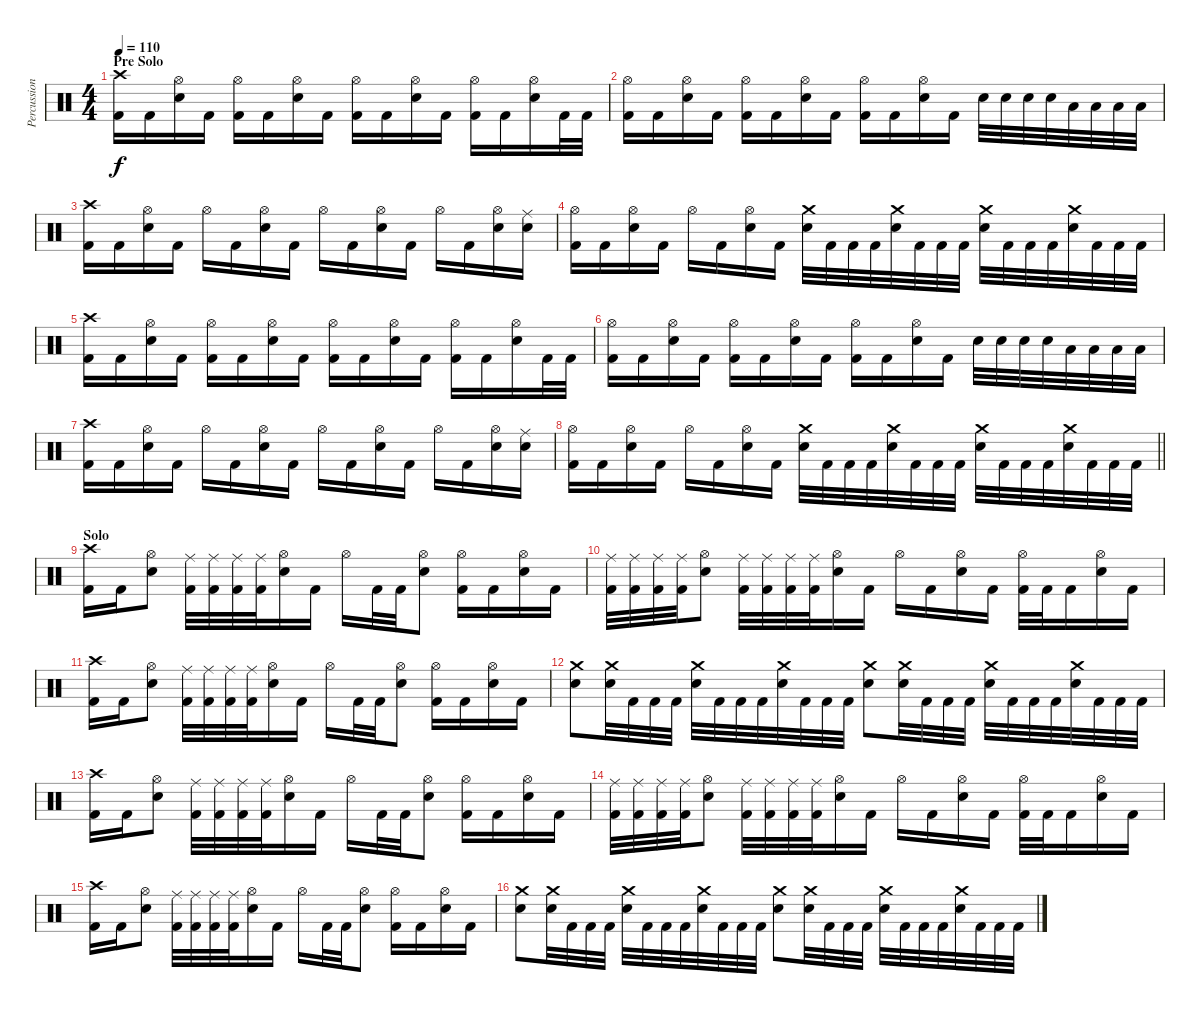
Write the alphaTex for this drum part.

\track ("Percussion" "Percussion") {instrument percussion}
\staff {score}
\articulation defaults
\ts (4 4)
\section ("" "Pre Solo")
\tempo 110
\clef neutral
\ks c
("Kick (hit) 2" "Crash high (hit)").16{dy f} "Kick (hit) 2".16 ("Hi-Hat (open)" "Snare (hit) 2").16 "Kick (hit) 2".16 ("Hi-Hat (open)" "Kick (hit) 2").16 "Kick (hit) 2".16 ("Hi-Hat (open)" "Snare (hit) 2").16 "Kick (hit) 2".16 ("Hi-Hat (open)" "Kick (hit) 2").16 "Kick (hit) 2".16 ("Hi-Hat (open)" "Snare (hit) 2").16 "Kick (hit) 2".16 ("Hi-Hat (open)" "Kick (hit) 2").16 "Kick (hit) 2".16 ("Hi-Hat (open)" "Snare (hit) 2").16 "Kick (hit) 2".32 "Kick (hit) 2".32 |
("Hi-Hat (open)" "Kick (hit) 2").16 "Kick (hit) 2".16 ("Hi-Hat (open)" "Snare (hit) 2").16 "Kick (hit) 2".16 ("Hi-Hat (open)" "Kick (hit) 2").16 "Kick (hit) 2".16 ("Hi-Hat (open)" "Snare (hit) 2").16 "Kick (hit) 2".16 ("Hi-Hat (open)" "Kick (hit) 2").16 "Kick (hit) 2".16 ("Hi-Hat (open)" "Snare (hit) 2").16 "Kick (hit) 2".16 "Snare (hit) 2".32 "Snare (hit) 2".32 "Snare (hit) 2".32 "Snare (hit) 2".32 "Low Tom (hit)".32 "Low Tom (hit)".32 "Low Tom (hit)".32 "Low Tom (hit)".32 |
("Kick (hit) 2" "Crash high (hit)").16 "Kick (hit) 2".16 ("Hi-Hat (open)" "Snare (hit) 2").16 "Kick (hit) 2".16 "Hi-Hat (open)".16 "Kick (hit) 2".16 ("Hi-Hat (open)" "Snare (hit) 2").16 "Kick (hit) 2".16 "Hi-Hat (open)".16 "Kick (hit) 2".16 ("Hi-Hat (open)" "Snare (hit) 2").16 "Kick (hit) 2".16 "Hi-Hat (open)".16 "Kick (hit) 2".16 ("Hi-Hat (open)" "Snare (hit) 2").16 ("Ride (middle)" "Snare (hit) 2").16 |
("Hi-Hat (open)" "Kick (hit) 2").16 "Kick (hit) 2".16 ("Hi-Hat (open)" "Snare (hit) 2").16 "Kick (hit) 2".16 "Hi-Hat (open)".16 "Kick (hit) 2".16 ("Hi-Hat (open)" "Snare (hit) 2").16 "Kick (hit) 2".16 ("Snare (hit) 2" "Crash medium (hit)").32 "Kick (hit) 2".32 "Kick (hit) 2".32 "Kick (hit) 2".32 ("Snare (hit) 2" "Crash medium (hit)").32 "Kick (hit) 2".32 "Kick (hit) 2".32 "Kick (hit) 2".32 ("Snare (hit) 2" "Crash medium (hit)").32 "Kick (hit) 2".32 "Kick (hit) 2".32 "Kick (hit) 2".32 ("Snare (hit) 2" "Crash medium (hit)").32 "Kick (hit) 2".32 "Kick (hit) 2".32 "Kick (hit) 2".32 |
("Kick (hit) 2" "Crash high (hit)").16 "Kick (hit) 2".16 ("Hi-Hat (open)" "Snare (hit) 2").16 "Kick (hit) 2".16 ("Hi-Hat (open)" "Kick (hit) 2").16 "Kick (hit) 2".16 ("Hi-Hat (open)" "Snare (hit) 2").16 "Kick (hit) 2".16 ("Hi-Hat (open)" "Kick (hit) 2").16 "Kick (hit) 2".16 ("Hi-Hat (open)" "Snare (hit) 2").16 "Kick (hit) 2".16 ("Hi-Hat (open)" "Kick (hit) 2").16 "Kick (hit) 2".16 ("Hi-Hat (open)" "Snare (hit) 2").16 "Kick (hit) 2".32 "Kick (hit) 2".32 |
("Hi-Hat (open)" "Kick (hit) 2").16 "Kick (hit) 2".16 ("Hi-Hat (open)" "Snare (hit) 2").16 "Kick (hit) 2".16 ("Hi-Hat (open)" "Kick (hit) 2").16 "Kick (hit) 2".16 ("Hi-Hat (open)" "Snare (hit) 2").16 "Kick (hit) 2".16 ("Hi-Hat (open)" "Kick (hit) 2").16 "Kick (hit) 2".16 ("Hi-Hat (open)" "Snare (hit) 2").16 "Kick (hit) 2".16 "Snare (hit) 2".32 "Snare (hit) 2".32 "Snare (hit) 2".32 "Snare (hit) 2".32 "Low Tom (hit)".32 "Low Tom (hit)".32 "Low Tom (hit)".32 "Low Tom (hit)".32 |
("Kick (hit) 2" "Crash high (hit)").16 "Kick (hit) 2".16 ("Hi-Hat (open)" "Snare (hit) 2").16 "Kick (hit) 2".16 "Hi-Hat (open)".16 "Kick (hit) 2".16 ("Hi-Hat (open)" "Snare (hit) 2").16 "Kick (hit) 2".16 "Hi-Hat (open)".16 "Kick (hit) 2".16 ("Hi-Hat (open)" "Snare (hit) 2").16 "Kick (hit) 2".16 "Hi-Hat (open)".16 "Kick (hit) 2".16 ("Hi-Hat (open)" "Snare (hit) 2").16 ("Ride (middle)" "Snare (hit) 2").16 |
\barLineRight lightlight
("Hi-Hat (open)" "Kick (hit) 2").16 "Kick (hit) 2".16 ("Hi-Hat (open)" "Snare (hit) 2").16 "Kick (hit) 2".16 "Hi-Hat (open)".16 "Kick (hit) 2".16 ("Hi-Hat (open)" "Snare (hit) 2").16 "Kick (hit) 2".16 ("Snare (hit) 2" "Crash medium (hit)").32 "Kick (hit) 2".32 "Kick (hit) 2".32 "Kick (hit) 2".32 ("Snare (hit) 2" "Crash medium (hit)").32 "Kick (hit) 2".32 "Kick (hit) 2".32 "Kick (hit) 2".32 ("Snare (hit) 2" "Crash medium (hit)").32 "Kick (hit) 2".32 "Kick (hit) 2".32 "Kick (hit) 2".32 ("Snare (hit) 2" "Crash medium (hit)").32 "Kick (hit) 2".32 "Kick (hit) 2".32 "Kick (hit) 2".32 |
\section ("" "Solo")
("Kick (hit) 2" "Crash high (hit)").16 "Kick (hit) 2".16 ("Hi-Hat (open)" "Snare (hit) 2").8 ("Ride (middle)" "Kick (hit) 2").32 ("Ride (middle)" "Kick (hit) 2").32 ("Ride (middle)" "Kick (hit) 2").32 ("Ride (middle)" "Kick (hit) 2").32 ("Hi-Hat (open)" "Snare (hit) 2").16 "Kick (hit) 2".16 "Hi-Hat (open)".16 "Kick (hit) 2".32 "Kick (hit) 2".32 ("Hi-Hat (open)" "Snare (hit) 2").8 ("Hi-Hat (open)" "Kick (hit) 2").16 "Kick (hit) 2".16 ("Hi-Hat (open)" "Snare (hit) 2").16 "Kick (hit) 2".16 |
("Ride (middle)" "Kick (hit) 2").32 ("Ride (middle)" "Kick (hit) 2").32 ("Ride (middle)" "Kick (hit) 2").32 ("Ride (middle)" "Kick (hit) 2").32 ("Hi-Hat (open)" "Snare (hit) 2").8 ("Ride (middle)" "Kick (hit) 2").32 ("Ride (middle)" "Kick (hit) 2").32 ("Ride (middle)" "Kick (hit) 2").32 ("Ride (middle)" "Kick (hit) 2").32 ("Hi-Hat (open)" "Snare (hit) 2").16 "Kick (hit) 2".16 "Hi-Hat (open)".16 "Kick (hit) 2".16 ("Hi-Hat (open)" "Snare (hit) 2").16 "Kick (hit) 2".16 ("Hi-Hat (open)" "Kick (hit) 2").32 "Kick (hit) 2".32 "Kick (hit) 2".16 ("Hi-Hat (open)" "Snare (hit) 2").16 "Kick (hit) 2".16 |
("Kick (hit) 2" "Crash high (hit)").16 "Kick (hit) 2".16 ("Hi-Hat (open)" "Snare (hit) 2").8 ("Ride (middle)" "Kick (hit) 2").32 ("Ride (middle)" "Kick (hit) 2").32 ("Ride (middle)" "Kick (hit) 2").32 ("Ride (middle)" "Kick (hit) 2").32 ("Hi-Hat (open)" "Snare (hit) 2").16 "Kick (hit) 2".16 "Hi-Hat (open)".16 "Kick (hit) 2".32 "Kick (hit) 2".32 ("Hi-Hat (open)" "Snare (hit) 2").8 ("Hi-Hat (open)" "Kick (hit) 2").16 "Kick (hit) 2".16 ("Hi-Hat (open)" "Snare (hit) 2").16 "Kick (hit) 2".16 |
("Snare (hit) 2" "Crash medium (hit)").8 ("Snare (hit) 2" "Crash medium (hit)").32 "Kick (hit) 2".32 "Kick (hit) 2".32 "Kick (hit) 2".32 ("Snare (hit) 2" "Crash medium (hit)").32 "Kick (hit) 2".32 "Kick (hit) 2".32 "Kick (hit) 2".32 ("Snare (hit) 2" "Crash medium (hit)").32 "Kick (hit) 2".32 "Kick (hit) 2".32 "Kick (hit) 2".32 ("Snare (hit) 2" "Crash medium (hit)").8 ("Snare (hit) 2" "Crash medium (hit)").32 "Kick (hit) 2".32 "Kick (hit) 2".32 "Kick (hit) 2".32 ("Snare (hit) 2" "Crash medium (hit)").32 "Kick (hit) 2".32 "Kick (hit) 2".32 "Kick (hit) 2".32 ("Snare (hit) 2" "Crash medium (hit)").32 "Kick (hit) 2".32 "Kick (hit) 2".32 "Kick (hit) 2".32 |
("Kick (hit) 2" "Crash high (hit)").16 "Kick (hit) 2".16 ("Hi-Hat (open)" "Snare (hit) 2").8 ("Ride (middle)" "Kick (hit) 2").32 ("Ride (middle)" "Kick (hit) 2").32 ("Ride (middle)" "Kick (hit) 2").32 ("Ride (middle)" "Kick (hit) 2").32 ("Hi-Hat (open)" "Snare (hit) 2").16 "Kick (hit) 2".16 "Hi-Hat (open)".16 "Kick (hit) 2".32 "Kick (hit) 2".32 ("Hi-Hat (open)" "Snare (hit) 2").8 ("Hi-Hat (open)" "Kick (hit) 2").16 "Kick (hit) 2".16 ("Hi-Hat (open)" "Snare (hit) 2").16 "Kick (hit) 2".16 |
("Ride (middle)" "Kick (hit) 2").32 ("Ride (middle)" "Kick (hit) 2").32 ("Ride (middle)" "Kick (hit) 2").32 ("Ride (middle)" "Kick (hit) 2").32 ("Hi-Hat (open)" "Snare (hit) 2").8 ("Ride (middle)" "Kick (hit) 2").32 ("Ride (middle)" "Kick (hit) 2").32 ("Ride (middle)" "Kick (hit) 2").32 ("Ride (middle)" "Kick (hit) 2").32 ("Hi-Hat (open)" "Snare (hit) 2").16 "Kick (hit) 2".16 "Hi-Hat (open)".16 "Kick (hit) 2".16 ("Hi-Hat (open)" "Snare (hit) 2").16 "Kick (hit) 2".16 ("Hi-Hat (open)" "Kick (hit) 2").32 "Kick (hit) 2".32 "Kick (hit) 2".16 ("Hi-Hat (open)" "Snare (hit) 2").16 "Kick (hit) 2".16 |
("Kick (hit) 2" "Crash high (hit)").16 "Kick (hit) 2".16 ("Hi-Hat (open)" "Snare (hit) 2").8 ("Ride (middle)" "Kick (hit) 2").32 ("Ride (middle)" "Kick (hit) 2").32 ("Ride (middle)" "Kick (hit) 2").32 ("Ride (middle)" "Kick (hit) 2").32 ("Hi-Hat (open)" "Snare (hit) 2").16 "Kick (hit) 2".16 "Hi-Hat (open)".16 "Kick (hit) 2".32 "Kick (hit) 2".32 ("Hi-Hat (open)" "Snare (hit) 2").8 ("Hi-Hat (open)" "Kick (hit) 2").16 "Kick (hit) 2".16 ("Hi-Hat (open)" "Snare (hit) 2").16 "Kick (hit) 2".16 |
("Snare (hit) 2" "Crash medium (hit)").8 ("Snare (hit) 2" "Crash medium (hit)").32 "Kick (hit) 2".32 "Kick (hit) 2".32 "Kick (hit) 2".32 ("Snare (hit) 2" "Crash medium (hit)").32 "Kick (hit) 2".32 "Kick (hit) 2".32 "Kick (hit) 2".32 ("Snare (hit) 2" "Crash medium (hit)").32 "Kick (hit) 2".32 "Kick (hit) 2".32 "Kick (hit) 2".32 ("Snare (hit) 2" "Crash medium (hit)").8 ("Snare (hit) 2" "Crash medium (hit)").32 "Kick (hit) 2".32 "Kick (hit) 2".32 "Kick (hit) 2".32 ("Snare (hit) 2" "Crash medium (hit)").32 "Kick (hit) 2".32 "Kick (hit) 2".32 "Kick (hit) 2".32 ("Snare (hit) 2" "Crash medium (hit)").32 "Kick (hit) 2".32 "Kick (hit) 2".32 "Kick (hit) 2".32
